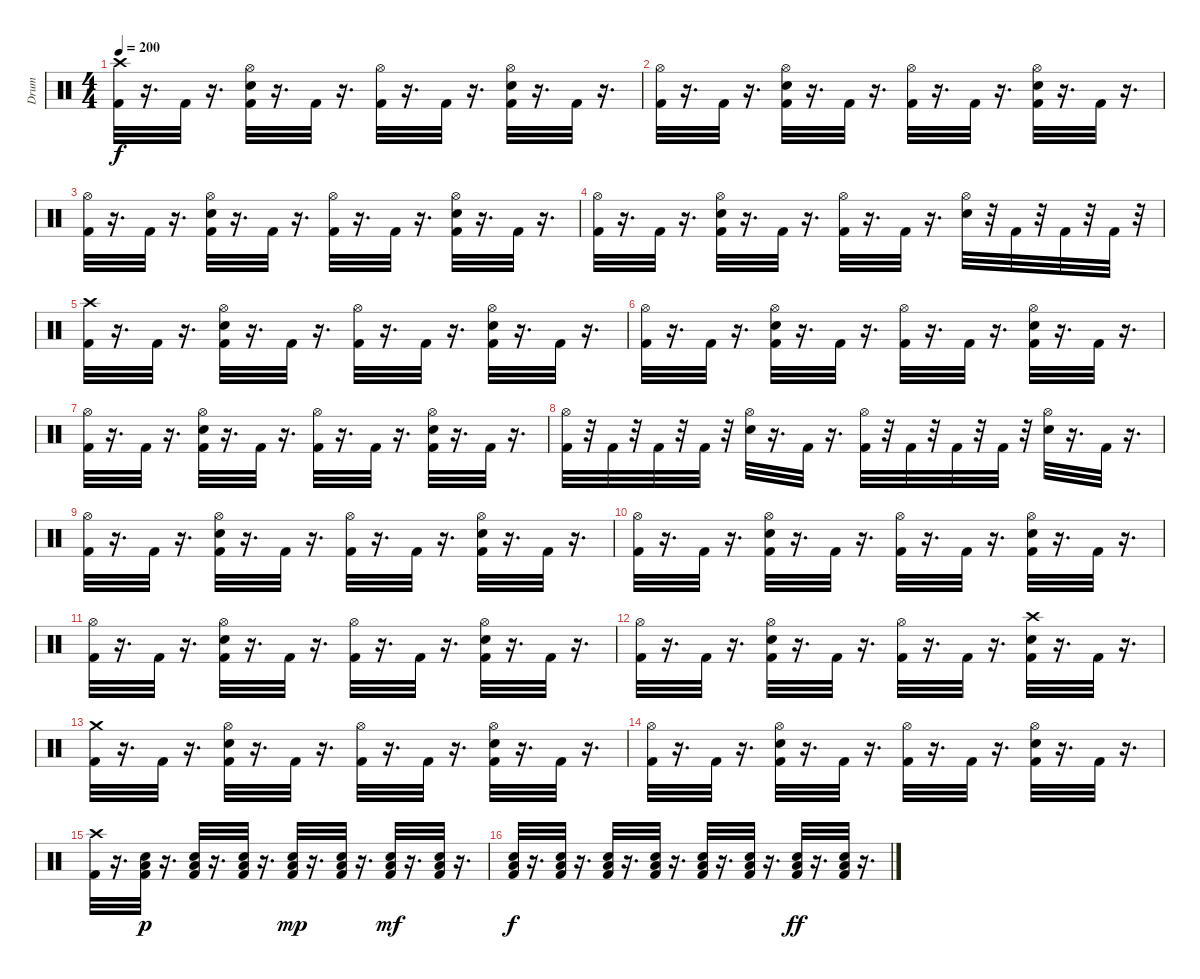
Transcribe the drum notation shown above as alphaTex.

\track ("Drum" "Drum") {instrument percussion}
\staff {score}
\articulation defaults
\ts (4 4)
\tempo 200
\clef neutral
\ks c
("Crash high (hit)" "Kick (hit) 2").32{dy f} r.16{d} "Kick (hit) 2".32 r.16{d} ("Snare (hit) 2" "Hi-Hat (open)" "Kick (hit) 2").32 r.16{d} "Kick (hit) 2".32 r.16{d} ("Hi-Hat (open)" "Kick (hit) 2").32 r.16{d} "Kick (hit) 2".32 r.16{d} ("Snare (hit) 2" "Hi-Hat (open)" "Kick (hit) 2").32 r.16{d} "Kick (hit) 2".32 r.16{d} |
("Hi-Hat (open)" "Kick (hit) 2").32 r.16{d} "Kick (hit) 2".32 r.16{d} ("Snare (hit) 2" "Hi-Hat (open)" "Kick (hit) 2").32 r.16{d} "Kick (hit) 2".32 r.16{d} ("Hi-Hat (open)" "Kick (hit) 2").32 r.16{d} "Kick (hit) 2".32 r.16{d} ("Snare (hit) 2" "Hi-Hat (open)" "Kick (hit) 2").32 r.16{d} "Kick (hit) 2".32 r.16{d} |
("Hi-Hat (open)" "Kick (hit) 2").32 r.16{d} "Kick (hit) 2".32 r.16{d} ("Snare (hit) 2" "Hi-Hat (open)" "Kick (hit) 2").32 r.16{d} "Kick (hit) 2".32 r.16{d} ("Hi-Hat (open)" "Kick (hit) 2").32 r.16{d} "Kick (hit) 2".32 r.16{d} ("Snare (hit) 2" "Hi-Hat (open)" "Kick (hit) 2").32 r.16{d} "Kick (hit) 2".32 r.16{d} |
("Hi-Hat (open)" "Kick (hit) 2").32 r.16{d} "Kick (hit) 2".32 r.16{d} ("Snare (hit) 2" "Hi-Hat (open)" "Kick (hit) 2").32 r.16{d} "Kick (hit) 2".32 r.16{d} ("Hi-Hat (open)" "Kick (hit) 2").32 r.16{d} "Kick (hit) 2".32 r.16{d} ("Snare (hit) 2" "Hi-Hat (open)").32 r.32 "Kick (hit) 2".32 r.32 "Kick (hit) 2".32 r.32 "Kick (hit) 2".32 r.32 |
("Crash high (hit)" "Kick (hit) 2").32 r.16{d} "Kick (hit) 2".32 r.16{d} ("Snare (hit) 2" "Hi-Hat (open)" "Kick (hit) 2").32 r.16{d} "Kick (hit) 2".32 r.16{d} ("Hi-Hat (open)" "Kick (hit) 2").32 r.16{d} "Kick (hit) 2".32 r.16{d} ("Snare (hit) 2" "Hi-Hat (open)" "Kick (hit) 2").32 r.16{d} "Kick (hit) 2".32 r.16{d} |
("Hi-Hat (open)" "Kick (hit) 2").32 r.16{d} "Kick (hit) 2".32 r.16{d} ("Snare (hit) 2" "Hi-Hat (open)" "Kick (hit) 2").32 r.16{d} "Kick (hit) 2".32 r.16{d} ("Hi-Hat (open)" "Kick (hit) 2").32 r.16{d} "Kick (hit) 2".32 r.16{d} ("Snare (hit) 2" "Hi-Hat (open)" "Kick (hit) 2").32 r.16{d} "Kick (hit) 2".32 r.16{d} |
("Hi-Hat (open)" "Kick (hit) 2").32 r.16{d} "Kick (hit) 2".32 r.16{d} ("Snare (hit) 2" "Hi-Hat (open)" "Kick (hit) 2").32 r.16{d} "Kick (hit) 2".32 r.16{d} ("Hi-Hat (open)" "Kick (hit) 2").32 r.16{d} "Kick (hit) 2".32 r.16{d} ("Snare (hit) 2" "Hi-Hat (open)" "Kick (hit) 2").32 r.16{d} "Kick (hit) 2".32 r.16{d} |
("Hi-Hat (open)" "Kick (hit) 2").32 r.32 "Kick (hit) 2".32 r.32 "Kick (hit) 2".32 r.32 "Kick (hit) 2".32 r.32 ("Snare (hit) 2" "Hi-Hat (open)").32 r.16{d} "Kick (hit) 2".32 r.16{d} ("Hi-Hat (open)" "Kick (hit) 2").32 r.32 "Kick (hit) 2".32 r.32 "Kick (hit) 2".32 r.32 "Kick (hit) 2".32 r.32 ("Snare (hit) 2" "Hi-Hat (open)").32 r.16{d} "Kick (hit) 2".32 r.16{d} |
("Hi-Hat (open)" "Kick (hit) 2").32 r.16{d} "Kick (hit) 2".32 r.16{d} ("Snare (hit) 2" "Hi-Hat (open)" "Kick (hit) 2").32 r.16{d} "Kick (hit) 2".32 r.16{d} ("Hi-Hat (open)" "Kick (hit) 2").32 r.16{d} "Kick (hit) 2".32 r.16{d} ("Snare (hit) 2" "Hi-Hat (open)" "Kick (hit) 2").32 r.16{d} "Kick (hit) 2".32 r.16{d} |
("Hi-Hat (open)" "Kick (hit) 2").32 r.16{d} "Kick (hit) 2".32 r.16{d} ("Snare (hit) 2" "Hi-Hat (open)" "Kick (hit) 2").32 r.16{d} "Kick (hit) 2".32 r.16{d} ("Hi-Hat (open)" "Kick (hit) 2").32 r.16{d} "Kick (hit) 2".32 r.16{d} ("Snare (hit) 2" "Hi-Hat (open)" "Kick (hit) 2").32 r.16{d} "Kick (hit) 2".32 r.16{d} |
("Hi-Hat (open)" "Kick (hit) 2").32 r.16{d} "Kick (hit) 2".32 r.16{d} ("Snare (hit) 2" "Hi-Hat (open)" "Kick (hit) 2").32 r.16{d} "Kick (hit) 2".32 r.16{d} ("Hi-Hat (open)" "Kick (hit) 2").32 r.16{d} "Kick (hit) 2".32 r.16{d} ("Snare (hit) 2" "Hi-Hat (open)" "Kick (hit) 2").32 r.16{d} "Kick (hit) 2".32 r.16{d} |
("Hi-Hat (open)" "Kick (hit) 2").32 r.16{d} "Kick (hit) 2".32 r.16{d} ("Snare (hit) 2" "Hi-Hat (open)" "Kick (hit) 2").32 r.16{d} "Kick (hit) 2".32 r.16{d} ("Hi-Hat (open)" "Kick (hit) 2").32 r.16{d} "Kick (hit) 2".32 r.16{d} ("Crash high (hit)" "Snare (hit) 2" "Kick (hit) 2").32 r.16{d} "Kick (hit) 2".32 r.16{d} |
("Crash medium (hit)" "Kick (hit) 2").32 r.16{d} "Kick (hit) 2".32 r.16{d} ("Snare (hit) 2" "Hi-Hat (open)" "Kick (hit) 2").32 r.16{d} "Kick (hit) 2".32 r.16{d} ("Hi-Hat (open)" "Kick (hit) 2").32 r.16{d} "Kick (hit) 2".32 r.16{d} ("Snare (hit) 2" "Hi-Hat (open)" "Kick (hit) 2").32 r.16{d} "Kick (hit) 2".32 r.16{d} |
("Hi-Hat (open)" "Kick (hit) 2").32 r.16{d} "Kick (hit) 2".32 r.16{d} ("Snare (hit) 2" "Hi-Hat (open)" "Kick (hit) 2").32 r.16{d} "Kick (hit) 2".32 r.16{d} ("Hi-Hat (open)" "Kick (hit) 2").32 r.16{d} "Kick (hit) 2".32 r.16{d} ("Snare (hit) 2" "Hi-Hat (open)" "Kick (hit) 2").32 r.16{d} "Kick (hit) 2".32 r.16{d} |
("Crash high (hit)" "Kick (hit) 2").32 r.16{d} ("Kick (hit) 2" "Snare (hit) 2" "Low Floor Tom (hit)").32{dy p} r.16{d} ("Low Floor Tom (hit)" "Snare (hit) 2" "Kick (hit) 2").32 r.16{d} ("Snare (hit) 2" "Low Floor Tom (hit)" "Kick (hit) 2").32 r.16{d} ("Snare (hit) 2" "Low Floor Tom (hit)" "Kick (hit) 2").32{dy mp} r.16{d} ("Snare (hit) 2" "Low Floor Tom (hit)" "Kick (hit) 2").32 r.16{d} ("Low Floor Tom (hit)" "Snare (hit) 2" "Kick (hit) 2").32{dy mf} r.16{d} ("Low Floor Tom (hit)" "Snare (hit) 2" "Kick (hit) 2").32 r.16{d} |
("Snare (hit) 2" "Low Floor Tom (hit)" "Kick (hit) 2").32{dy f} r.16{d} ("Low Floor Tom (hit)" "Snare (hit) 2" "Kick (hit) 2").32 r.16{d} ("Low Floor Tom (hit)" "Snare (hit) 2" "Kick (hit) 2").32 r.16{d} ("Snare (hit) 2" "Low Floor Tom (hit)" "Kick (hit) 2").32 r.16{d} ("Low Floor Tom (hit)" "Snare (hit) 2" "Kick (hit) 2").32 r.16{d} ("Low Floor Tom (hit)" "Snare (hit) 2" "Kick (hit) 2").32 r.16{d} ("Snare (hit) 2" "Low Floor Tom (hit)" "Kick (hit) 2").32{dy ff} r.16{d} ("Low Floor Tom (hit)" "Snare (hit) 2" "Kick (hit) 2").32 r.16{d}
